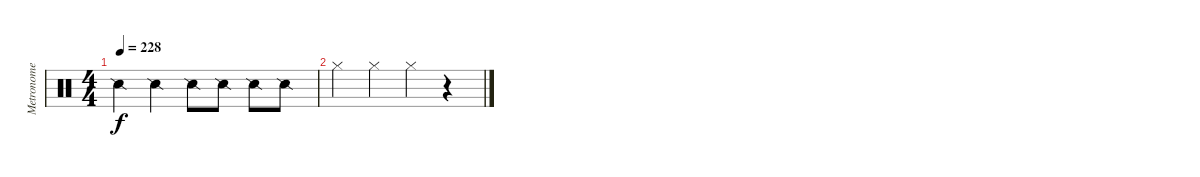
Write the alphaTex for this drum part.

\track ("Metronome" "Metronome") {instrument percussion}
\staff {score}
\articulation defaults
\ts (4 4)
\tempo 228
\clef neutral
\ks c "Snare (side stick) 2".4{dy f} "Snare (side stick) 2".4 "Snare (side stick) 2".8 "Snare (side stick) 2".8 "Snare (side stick) 2".8 "Snare (side stick) 2".8
|
"Hi-Hat (closed)".4 "Hi-Hat (closed)".4 "Hi-Hat (closed)".4 r.4
